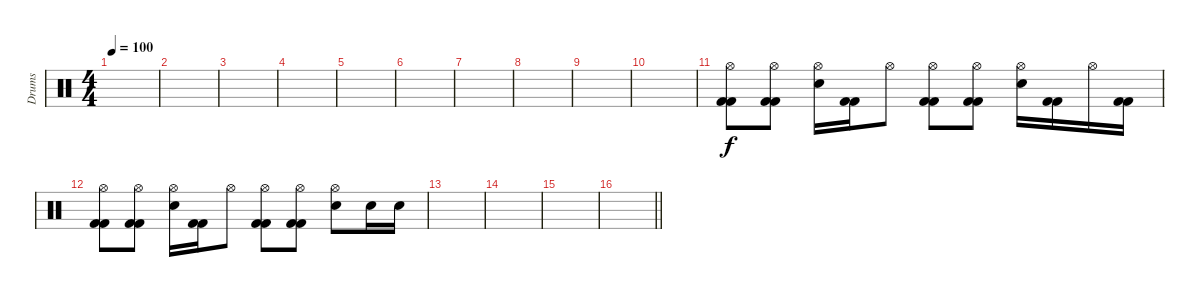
\track ("Drums" "Drums") {instrument percussion}
\staff {score}
\articulation defaults
\ts (4 4)
\tempo 100
\clef neutral
\ks c
|
|
|
|
|
|
|
|
|
|
("Hi-Hat (open)" "Kick (hit) 2" "Kick (hit) 2").8{volume 8} ("Hi-Hat (open)" "Kick (hit) 2" "Kick (hit) 2").8 ("Hi-Hat (open)" "Electric Snare (hit)").16 ("Kick (hit) 2" "Kick (hit) 2").16 "Hi-Hat (open)".8 ("Hi-Hat (open)" "Kick (hit) 2" "Kick (hit) 2").8 ("Hi-Hat (open)" "Kick (hit) 2" "Kick (hit) 2").8 ("Hi-Hat (open)" "Electric Snare (hit)").16 ("Kick (hit) 2" "Kick (hit) 2").16 "Hi-Hat (open)".16 ("Kick (hit) 2" "Kick (hit) 2").16 |
("Hi-Hat (open)" "Kick (hit) 2" "Kick (hit) 2").8 ("Hi-Hat (open)" "Kick (hit) 2" "Kick (hit) 2").8 ("Hi-Hat (open)" "Electric Snare (hit)").16 ("Kick (hit) 2" "Kick (hit) 2").16 "Hi-Hat (open)".8 ("Hi-Hat (open)" "Kick (hit) 2" "Kick (hit) 2").8 ("Hi-Hat (open)" "Kick (hit) 2" "Kick (hit) 2").8 ("Hi-Hat (open)" "Electric Snare (hit)").8 "Electric Snare (hit)".16 "Electric Snare (hit)".16 |
|
|
|
\barLineRight lightlight
